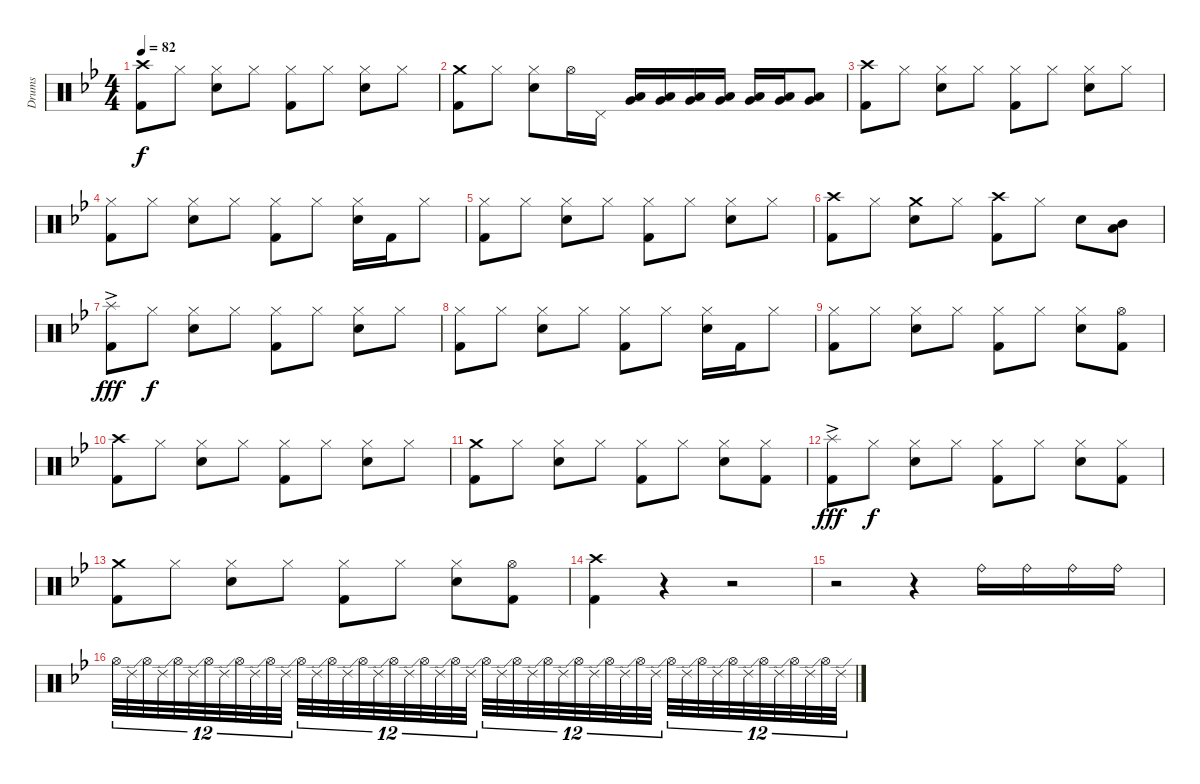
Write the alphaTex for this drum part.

\track ("Drums" "Drums") {instrument percussion}
\staff {score}
\articulation defaults
\ts (4 4)
\tempo 82
\clef neutral
\ks bb
("Crash high (hit)" "Kick (hit) 2").8{dy f} "Hi-Hat (closed)".8 ("Hi-Hat (closed)" "Snare (hit) 2").8 "Hi-Hat (closed)".8 ("Hi-Hat (closed)" "Kick (hit) 2").8 "Hi-Hat (closed)".8 ("Hi-Hat (closed)" "Snare (hit) 2").8 "Hi-Hat (closed)".8 |
("Crash medium (hit)" "Kick (hit) 2").8 "Hi-Hat (closed)".8 ("Hi-Hat (closed)" "Snare (hit) 2").8 "Hi-Hat (open)".16 "Pedal Hi-Hat (hit)".16 ("Low Tom (hit)" "Very Low Tom (hit)").16 ("Low Tom (hit)" "Very Low Tom (hit)").16 ("Low Tom (hit)" "Very Low Tom (hit)").16 ("Low Tom (hit)" "Very Low Tom (hit)").16 ("Low Tom (hit)" "Very Low Tom (hit)").16 ("Low Tom (hit)" "Very Low Tom (hit)").16 ("Low Tom (hit)" "Very Low Tom (hit)").8 |
("Crash high (hit)" "Kick (hit) 2").8 "Hi-Hat (closed)".8 ("Hi-Hat (closed)" "Snare (hit) 2").8 "Hi-Hat (closed)".8 ("Hi-Hat (closed)" "Kick (hit) 2").8 "Hi-Hat (closed)".8 ("Hi-Hat (closed)" "Snare (hit) 2").8 "Hi-Hat (closed)".8 |
("Hi-Hat (closed)" "Kick (hit) 2").8 "Hi-Hat (closed)".8 ("Hi-Hat (closed)" "Snare (hit) 2").8 "Hi-Hat (closed)".8 ("Hi-Hat (closed)" "Kick (hit) 2").8 "Hi-Hat (closed)".8 ("Hi-Hat (closed)" "Snare (hit) 2").16 "Kick (hit) 2".16 "Hi-Hat (closed)".8 |
("Hi-Hat (closed)" "Kick (hit) 2").8 "Hi-Hat (closed)".8 ("Hi-Hat (closed)" "Snare (hit) 2").8 "Hi-Hat (closed)".8 ("Hi-Hat (closed)" "Kick (hit) 2").8 "Hi-Hat (closed)".8 ("Hi-Hat (closed)" "Snare (hit) 2").8 "Hi-Hat (closed)".8 |
("Crash high (hit)" "Kick (hit) 2").8 "Hi-Hat (closed)".8 ("Crash medium (hit)" "Snare (hit) 2").8 "Hi-Hat (closed)".8 ("Crash high (hit)" "Kick (hit) 2").8 "Hi-Hat (closed)".8 "Snare (hit) 2".8 ("Mid Tom (hit)" "Low Tom (hit)").8 |
("Splash (hit)"{ac} "Kick (hit) 2").8{dy fff} "Hi-Hat (closed)".8{dy f} ("Hi-Hat (closed)" "Snare (hit) 2").8 "Hi-Hat (closed)".8 ("Hi-Hat (closed)" "Kick (hit) 2").8 "Hi-Hat (closed)".8 ("Hi-Hat (closed)" "Snare (hit) 2").8 "Hi-Hat (closed)".8 |
("Hi-Hat (closed)" "Kick (hit) 2").8 "Hi-Hat (closed)".8 ("Hi-Hat (closed)" "Snare (hit) 2").8 "Hi-Hat (closed)".8 ("Hi-Hat (closed)" "Kick (hit) 2").8 "Hi-Hat (closed)".8 ("Hi-Hat (closed)" "Snare (hit) 2").16 "Kick (hit) 2".16 "Hi-Hat (closed)".8 |
("Hi-Hat (closed)" "Kick (hit) 2").8 "Hi-Hat (closed)".8 ("Hi-Hat (closed)" "Snare (hit) 2").8 "Hi-Hat (closed)".8 ("Hi-Hat (closed)" "Kick (hit) 2").8 "Hi-Hat (closed)".8 ("Hi-Hat (closed)" "Snare (hit) 2").8 ("Hi-Hat (open)" "Kick (hit) 2").8 |
("Crash high (hit)" "Kick (hit) 2").8 "Hi-Hat (closed)".8 ("Hi-Hat (closed)" "Snare (hit) 2").8 "Hi-Hat (closed)".8 ("Hi-Hat (closed)" "Kick (hit) 2").8 "Hi-Hat (closed)".8 ("Hi-Hat (closed)" "Snare (hit) 2").8 "Hi-Hat (closed)".8 |
("Crash medium (hit)" "Kick (hit) 2").8 "Hi-Hat (closed)".8 ("Hi-Hat (closed)" "Snare (hit) 2").8 "Hi-Hat (closed)".8 ("Hi-Hat (closed)" "Kick (hit) 2").8 "Hi-Hat (closed)".8 ("Hi-Hat (closed)" "Snare (hit) 2").8 ("Hi-Hat (closed)" "Kick (hit) 2").8 |
("Splash (hit)"{ac} "Kick (hit) 2").8{dy fff} "Hi-Hat (closed)".8{dy f} ("Hi-Hat (closed)" "Snare (hit) 2").8 "Hi-Hat (closed)".8 ("Hi-Hat (closed)" "Kick (hit) 2").8 "Hi-Hat (closed)".8 ("Hi-Hat (closed)" "Snare (hit) 2").8 ("Hi-Hat (closed)" "Kick (hit) 2").8 |
("Crash medium (hit)" "Kick (hit) 2").8 "Hi-Hat (closed)".8 ("Hi-Hat (closed)" "Snare (hit) 2").8 "Hi-Hat (closed)".8 ("Hi-Hat (closed)" "Kick (hit) 2").8 "Hi-Hat (closed)".8 ("Hi-Hat (closed)" "Snare (hit) 2").8 ("Hi-Hat (open)" "Kick (hit) 2").8 |
("Crash high (hit)" "Kick (hit) 2").4 r.4 r.2 |
r.2 r.4 "Ride (bell)".16 "Ride (bell)".16 "Ride (bell)".16 "Ride (bell)".16 |
"Hi-Hat (open)".32{tu (12 8)} "Ride (edge) 2".32{tu (12 8)} "Hi-Hat (open)".32{tu (12 8)} "Ride (edge) 2".32{tu (12 8)} "Hi-Hat (open)".32{tu (12 8)} "Ride (edge) 2".32{tu (12 8)} "Hi-Hat (open)".32{tu (12 8)} "Ride (edge) 2".32{tu (12 8)} "Hi-Hat (open)".32{tu (12 8)} "Ride (edge) 2".32{tu (12 8)} "Hi-Hat (open)".32{tu (12 8)} "Ride (edge) 2".32{tu (12 8)} "Hi-Hat (open)".32{tu (12 8)} "Ride (edge) 2".32{tu (12 8)} "Hi-Hat (open)".32{tu (12 8)} "Ride (edge) 2".32{tu (12 8)} "Hi-Hat (open)".32{tu (12 8)} "Ride (edge) 2".32{tu (12 8)} "Hi-Hat (open)".32{tu (12 8)} "Ride (edge) 2".32{tu (12 8)} "Hi-Hat (open)".32{tu (12 8)} "Ride (edge) 2".32{tu (12 8)} "Hi-Hat (open)".32{tu (12 8)} "Ride (edge) 2".32{tu (12 8)} "Hi-Hat (open)".32{tu (12 8)} "Ride (edge) 2".32{tu (12 8)} "Hi-Hat (open)".32{tu (12 8)} "Ride (edge) 2".32{tu (12 8)} "Hi-Hat (open)".32{tu (12 8)} "Ride (edge) 2".32{tu (12 8)} "Hi-Hat (open)".32{tu (12 8)} "Ride (edge) 2".32{tu (12 8)} "Hi-Hat (open)".32{tu (12 8)} "Ride (edge) 2".32{tu (12 8)} "Hi-Hat (open)".32{tu (12 8)} "Ride (edge) 2".32{tu (12 8)} "Hi-Hat (open)".32{tu (12 8)} "Ride (edge) 2".32{tu (12 8)} "Hi-Hat (open)".32{tu (12 8)} "Ride (edge) 2".32{tu (12 8)} "Hi-Hat (open)".32{tu (12 8)} "Ride (edge) 2".32{tu (12 8)} "Hi-Hat (open)".32{tu (12 8)} "Ride (edge) 2".32{tu (12 8)} "Hi-Hat (open)".32{tu (12 8)} "Ride (edge) 2".32{tu (12 8)} "Hi-Hat (open)".32{tu (12 8)} "Ride (edge) 2".32{tu (12 8)}
